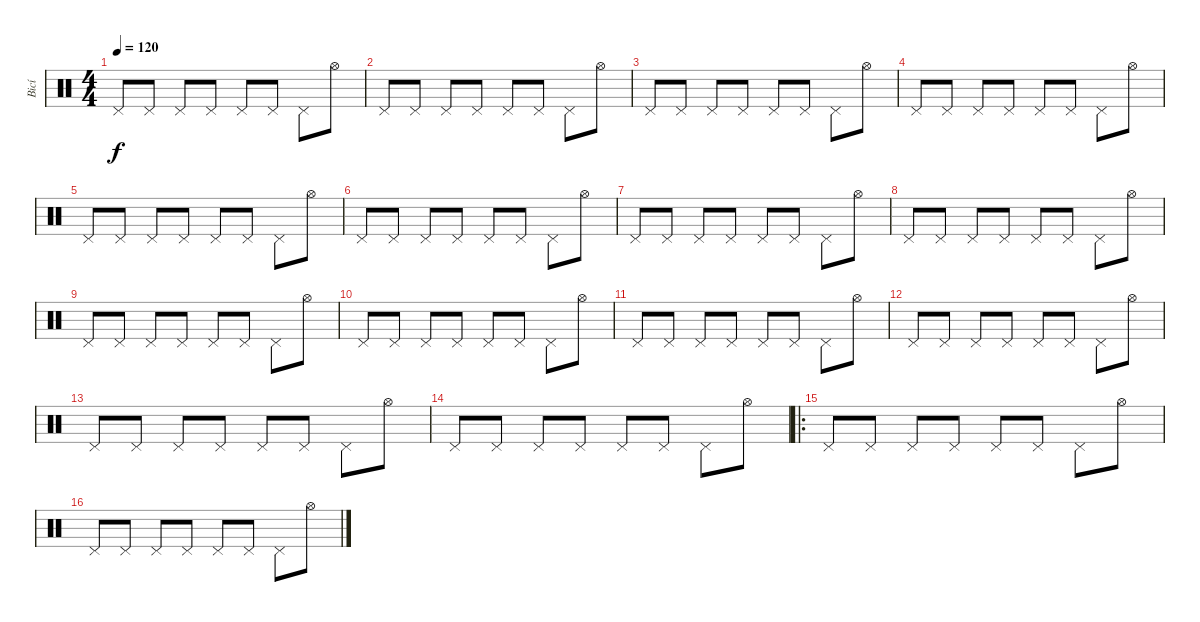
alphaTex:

\track ("Bicí" "Bicí") {instrument percussion}
\staff {score}
\articulation defaults
\ts (4 4)
\tempo 120
\clef neutral
\ks c "Pedal Hi-Hat (hit)".8{dy f} "Pedal Hi-Hat (hit)".8 "Pedal Hi-Hat (hit)".8 "Pedal Hi-Hat (hit)".8 "Pedal Hi-Hat (hit)".8 "Pedal Hi-Hat (hit)".8 "Pedal Hi-Hat (hit)".8 "Hi-Hat (open)".8
|
"Pedal Hi-Hat (hit)".8 "Pedal Hi-Hat (hit)".8 "Pedal Hi-Hat (hit)".8 "Pedal Hi-Hat (hit)".8 "Pedal Hi-Hat (hit)".8 "Pedal Hi-Hat (hit)".8 "Pedal Hi-Hat (hit)".8 "Hi-Hat (open)".8 |
"Pedal Hi-Hat (hit)".8 "Pedal Hi-Hat (hit)".8 "Pedal Hi-Hat (hit)".8 "Pedal Hi-Hat (hit)".8 "Pedal Hi-Hat (hit)".8 "Pedal Hi-Hat (hit)".8 "Pedal Hi-Hat (hit)".8 "Hi-Hat (open)".8 |
"Pedal Hi-Hat (hit)".8 "Pedal Hi-Hat (hit)".8 "Pedal Hi-Hat (hit)".8 "Pedal Hi-Hat (hit)".8 "Pedal Hi-Hat (hit)".8 "Pedal Hi-Hat (hit)".8 "Pedal Hi-Hat (hit)".8 "Hi-Hat (open)".8 |
"Pedal Hi-Hat (hit)".8 "Pedal Hi-Hat (hit)".8 "Pedal Hi-Hat (hit)".8 "Pedal Hi-Hat (hit)".8 "Pedal Hi-Hat (hit)".8 "Pedal Hi-Hat (hit)".8 "Pedal Hi-Hat (hit)".8 "Hi-Hat (open)".8 |
"Pedal Hi-Hat (hit)".8 "Pedal Hi-Hat (hit)".8 "Pedal Hi-Hat (hit)".8 "Pedal Hi-Hat (hit)".8 "Pedal Hi-Hat (hit)".8 "Pedal Hi-Hat (hit)".8 "Pedal Hi-Hat (hit)".8 "Hi-Hat (open)".8 |
"Pedal Hi-Hat (hit)".8 "Pedal Hi-Hat (hit)".8 "Pedal Hi-Hat (hit)".8 "Pedal Hi-Hat (hit)".8 "Pedal Hi-Hat (hit)".8 "Pedal Hi-Hat (hit)".8 "Pedal Hi-Hat (hit)".8 "Hi-Hat (open)".8 |
"Pedal Hi-Hat (hit)".8 "Pedal Hi-Hat (hit)".8 "Pedal Hi-Hat (hit)".8 "Pedal Hi-Hat (hit)".8 "Pedal Hi-Hat (hit)".8 "Pedal Hi-Hat (hit)".8 "Pedal Hi-Hat (hit)".8 "Hi-Hat (open)".8 |
"Pedal Hi-Hat (hit)".8 "Pedal Hi-Hat (hit)".8 "Pedal Hi-Hat (hit)".8 "Pedal Hi-Hat (hit)".8 "Pedal Hi-Hat (hit)".8 "Pedal Hi-Hat (hit)".8 "Pedal Hi-Hat (hit)".8 "Hi-Hat (open)".8 |
"Pedal Hi-Hat (hit)".8 "Pedal Hi-Hat (hit)".8 "Pedal Hi-Hat (hit)".8 "Pedal Hi-Hat (hit)".8 "Pedal Hi-Hat (hit)".8 "Pedal Hi-Hat (hit)".8 "Pedal Hi-Hat (hit)".8 "Hi-Hat (open)".8 |
"Pedal Hi-Hat (hit)".8 "Pedal Hi-Hat (hit)".8 "Pedal Hi-Hat (hit)".8 "Pedal Hi-Hat (hit)".8 "Pedal Hi-Hat (hit)".8 "Pedal Hi-Hat (hit)".8 "Pedal Hi-Hat (hit)".8 "Hi-Hat (open)".8 |
"Pedal Hi-Hat (hit)".8 "Pedal Hi-Hat (hit)".8 "Pedal Hi-Hat (hit)".8 "Pedal Hi-Hat (hit)".8 "Pedal Hi-Hat (hit)".8 "Pedal Hi-Hat (hit)".8 "Pedal Hi-Hat (hit)".8 "Hi-Hat (open)".8 |
"Pedal Hi-Hat (hit)".8 "Pedal Hi-Hat (hit)".8 "Pedal Hi-Hat (hit)".8 "Pedal Hi-Hat (hit)".8 "Pedal Hi-Hat (hit)".8 "Pedal Hi-Hat (hit)".8 "Pedal Hi-Hat (hit)".8 "Hi-Hat (open)".8 |
"Pedal Hi-Hat (hit)".8 "Pedal Hi-Hat (hit)".8 "Pedal Hi-Hat (hit)".8 "Pedal Hi-Hat (hit)".8 "Pedal Hi-Hat (hit)".8 "Pedal Hi-Hat (hit)".8 "Pedal Hi-Hat (hit)".8 "Hi-Hat (open)".8 |
\ro "Pedal Hi-Hat (hit)".8 "Pedal Hi-Hat (hit)".8 "Pedal Hi-Hat (hit)".8 "Pedal Hi-Hat (hit)".8 "Pedal Hi-Hat (hit)".8 "Pedal Hi-Hat (hit)".8 "Pedal Hi-Hat (hit)".8 "Hi-Hat (open)".8
|
"Pedal Hi-Hat (hit)".8 "Pedal Hi-Hat (hit)".8 "Pedal Hi-Hat (hit)".8 "Pedal Hi-Hat (hit)".8 "Pedal Hi-Hat (hit)".8 "Pedal Hi-Hat (hit)".8 "Pedal Hi-Hat (hit)".8 "Hi-Hat (open)".8
